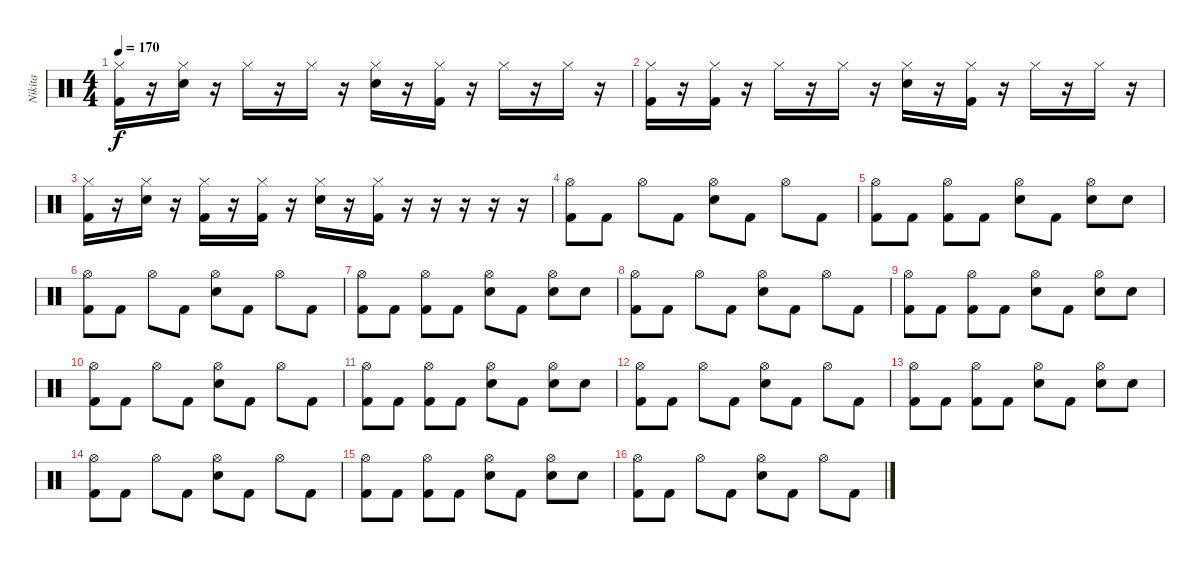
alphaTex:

\track ("Nikita" "Nikita") {instrument percussion}
\staff {score}
\articulation defaults
\ts (4 4)
\tempo 170
\clef neutral
\ks c
("Hi-Hat (closed)" "Kick (hit) 2").16{dy f} r.16 ("Hi-Hat (closed)" "Electric Snare (hit)").16 r.16 "Hi-Hat (closed)".16 r.16 "Hi-Hat (closed)".16 r.16 ("Hi-Hat (closed)" "Electric Snare (hit)").16 r.16 ("Hi-Hat (closed)" "Kick (hit) 2").16 r.16 "Hi-Hat (closed)".16 r.16 "Hi-Hat (closed)".16 r.16 |
("Hi-Hat (closed)" "Kick (hit) 2").16 r.16 ("Hi-Hat (closed)" "Kick (hit) 2").16 r.16 "Hi-Hat (closed)".16 r.16 "Hi-Hat (closed)".16 r.16 ("Hi-Hat (closed)" "Electric Snare (hit)").16 r.16 ("Hi-Hat (closed)" "Kick (hit) 2").16 r.16 "Hi-Hat (closed)".16 r.16 "Hi-Hat (closed)".16 r.16 |
("Hi-Hat (closed)" "Kick (hit) 2").16 r.16 ("Hi-Hat (closed)" "Electric Snare (hit)").16 r.16 ("Hi-Hat (closed)" "Kick (hit) 2").16 r.16 ("Hi-Hat (closed)" "Kick (hit) 2").16 r.16 ("Hi-Hat (closed)" "Electric Snare (hit)").16 r.16 ("Hi-Hat (closed)" "Kick (hit) 2").16 r.16 r.16 r.16 r.16 r.16 |
("Hi-Hat (open)" "Kick (hit) 2").8 "Kick (hit) 2".8 "Hi-Hat (open)".8 "Kick (hit) 2".8 ("Hi-Hat (open)" "Electric Snare (hit)").8 "Kick (hit) 2".8 "Hi-Hat (open)".8 "Kick (hit) 2".8 |
("Hi-Hat (open)" "Kick (hit) 2").8 "Kick (hit) 2".8 ("Hi-Hat (open)" "Kick (hit) 2").8 "Kick (hit) 2".8 ("Hi-Hat (open)" "Electric Snare (hit)").8 "Kick (hit) 2".8 ("Hi-Hat (open)" "Electric Snare (hit)").8 "Electric Snare (hit)".8 |
("Hi-Hat (open)" "Kick (hit) 2").8 "Kick (hit) 2".8 "Hi-Hat (open)".8 "Kick (hit) 2".8 ("Hi-Hat (open)" "Electric Snare (hit)").8 "Kick (hit) 2".8 "Hi-Hat (open)".8 "Kick (hit) 2".8 |
("Hi-Hat (open)" "Kick (hit) 2").8 "Kick (hit) 2".8 ("Hi-Hat (open)" "Kick (hit) 2").8 "Kick (hit) 2".8 ("Hi-Hat (open)" "Electric Snare (hit)").8 "Kick (hit) 2".8 ("Hi-Hat (open)" "Electric Snare (hit)").8 "Electric Snare (hit)".8 |
("Hi-Hat (open)" "Kick (hit) 2").8 "Kick (hit) 2".8 "Hi-Hat (open)".8 "Kick (hit) 2".8 ("Hi-Hat (open)" "Electric Snare (hit)").8 "Kick (hit) 2".8 "Hi-Hat (open)".8 "Kick (hit) 2".8 |
("Hi-Hat (open)" "Kick (hit) 2").8 "Kick (hit) 2".8 ("Hi-Hat (open)" "Kick (hit) 2").8 "Kick (hit) 2".8 ("Hi-Hat (open)" "Electric Snare (hit)").8 "Kick (hit) 2".8 ("Hi-Hat (open)" "Electric Snare (hit)").8 "Electric Snare (hit)".8 |
("Hi-Hat (open)" "Kick (hit) 2").8 "Kick (hit) 2".8 "Hi-Hat (open)".8 "Kick (hit) 2".8 ("Hi-Hat (open)" "Electric Snare (hit)").8 "Kick (hit) 2".8 "Hi-Hat (open)".8 "Kick (hit) 2".8 |
("Hi-Hat (open)" "Kick (hit) 2").8 "Kick (hit) 2".8 ("Hi-Hat (open)" "Kick (hit) 2").8 "Kick (hit) 2".8 ("Hi-Hat (open)" "Electric Snare (hit)").8 "Kick (hit) 2".8 ("Hi-Hat (open)" "Electric Snare (hit)").8 "Electric Snare (hit)".8 |
("Hi-Hat (open)" "Kick (hit) 2").8 "Kick (hit) 2".8 "Hi-Hat (open)".8 "Kick (hit) 2".8 ("Hi-Hat (open)" "Electric Snare (hit)").8 "Kick (hit) 2".8 "Hi-Hat (open)".8 "Kick (hit) 2".8 |
("Hi-Hat (open)" "Kick (hit) 2").8 "Kick (hit) 2".8 ("Hi-Hat (open)" "Kick (hit) 2").8 "Kick (hit) 2".8 ("Hi-Hat (open)" "Electric Snare (hit)").8 "Kick (hit) 2".8 ("Hi-Hat (open)" "Electric Snare (hit)").8 "Electric Snare (hit)".8 |
("Hi-Hat (open)" "Kick (hit) 2").8 "Kick (hit) 2".8 "Hi-Hat (open)".8 "Kick (hit) 2".8 ("Hi-Hat (open)" "Electric Snare (hit)").8 "Kick (hit) 2".8 "Hi-Hat (open)".8 "Kick (hit) 2".8 |
("Hi-Hat (open)" "Kick (hit) 2").8 "Kick (hit) 2".8 ("Hi-Hat (open)" "Kick (hit) 2").8 "Kick (hit) 2".8 ("Hi-Hat (open)" "Electric Snare (hit)").8 "Kick (hit) 2".8 ("Hi-Hat (open)" "Electric Snare (hit)").8 "Electric Snare (hit)".8 |
("Hi-Hat (open)" "Kick (hit) 2").8 "Kick (hit) 2".8 "Hi-Hat (open)".8 "Kick (hit) 2".8 ("Hi-Hat (open)" "Electric Snare (hit)").8 "Kick (hit) 2".8 "Hi-Hat (open)".8 "Kick (hit) 2".8
